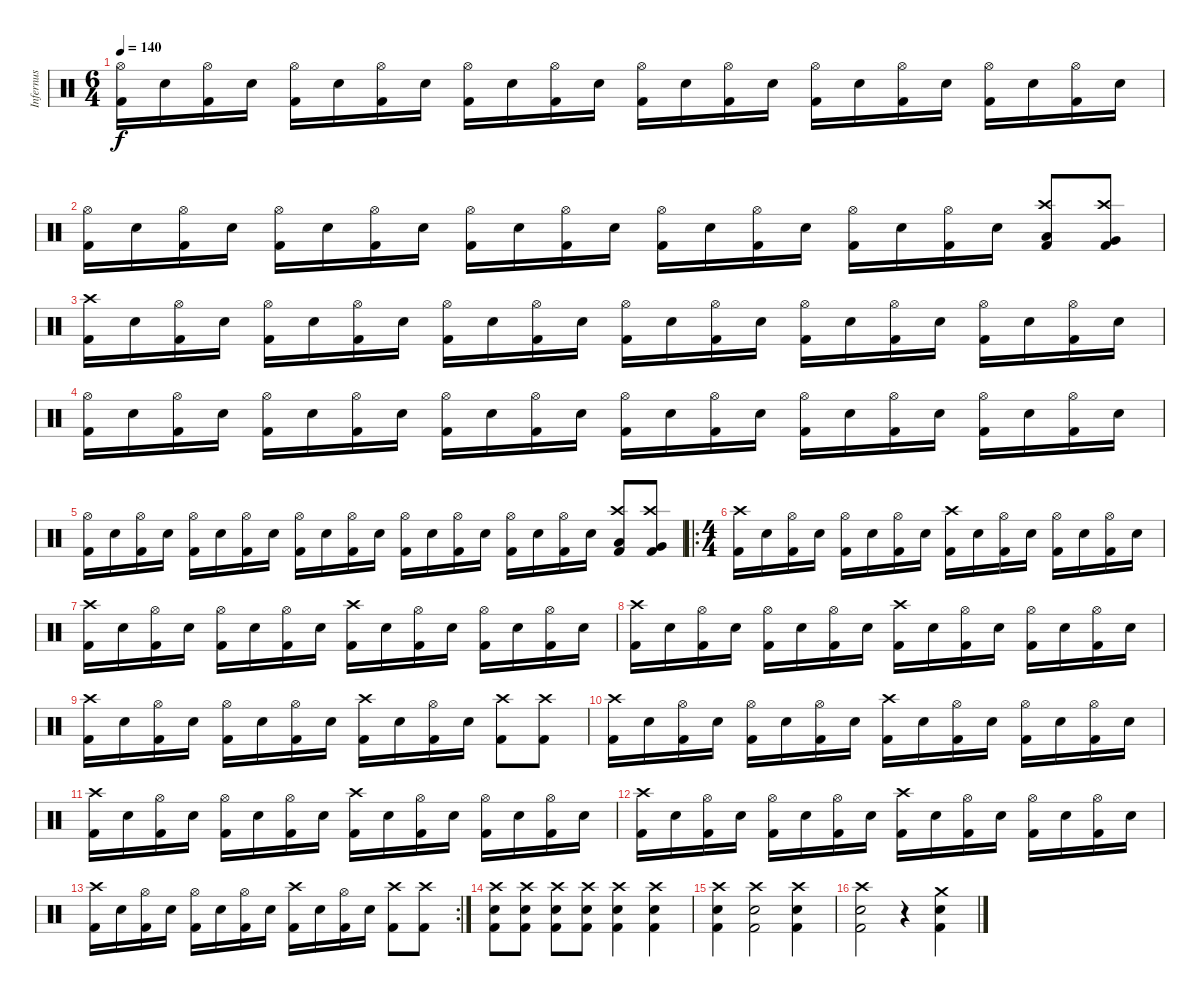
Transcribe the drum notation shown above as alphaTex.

\track ("Infernus" "Infernus") {instrument percussion}
\staff {score}
\articulation defaults
\ts (6 4)
\tempo 140
\clef neutral
\ks c
("Hi-Hat (open)" "Kick (hit) 2").16{dy f} "Electric Snare (hit)".16 ("Hi-Hat (open)" "Kick (hit) 2").16 "Electric Snare (hit)".16 ("Hi-Hat (open)" "Kick (hit) 2").16 "Electric Snare (hit)".16 ("Hi-Hat (open)" "Kick (hit) 2").16 "Electric Snare (hit)".16 ("Hi-Hat (open)" "Kick (hit) 2").16 "Electric Snare (hit)".16 ("Hi-Hat (open)" "Kick (hit) 2").16 "Electric Snare (hit)".16 ("Hi-Hat (open)" "Kick (hit) 2").16 "Electric Snare (hit)".16 ("Hi-Hat (open)" "Kick (hit) 2").16 "Electric Snare (hit)".16 ("Hi-Hat (open)" "Kick (hit) 2").16 "Electric Snare (hit)".16 ("Hi-Hat (open)" "Kick (hit) 2").16 "Electric Snare (hit)".16 ("Hi-Hat (open)" "Kick (hit) 2").16 "Electric Snare (hit)".16 ("Hi-Hat (open)" "Kick (hit) 2").16 "Electric Snare (hit)".16 |
("Hi-Hat (open)" "Kick (hit) 2").16 "Electric Snare (hit)".16 ("Hi-Hat (open)" "Kick (hit) 2").16 "Electric Snare (hit)".16 ("Hi-Hat (open)" "Kick (hit) 2").16 "Electric Snare (hit)".16 ("Hi-Hat (open)" "Kick (hit) 2").16 "Electric Snare (hit)".16 ("Hi-Hat (open)" "Kick (hit) 2").16 "Electric Snare (hit)".16 ("Hi-Hat (open)" "Kick (hit) 2").16 "Electric Snare (hit)".16 ("Hi-Hat (open)" "Kick (hit) 2").16 "Electric Snare (hit)".16 ("Hi-Hat (open)" "Kick (hit) 2").16 "Electric Snare (hit)".16 ("Hi-Hat (open)" "Kick (hit) 2").16 "Electric Snare (hit)".16 ("Hi-Hat (open)" "Kick (hit) 2").16 "Electric Snare (hit)".16 ("Crash high (hit)" "Low Tom (hit)" "Kick (hit) 2").8 ("Crash high (hit)" "Very Low Tom (hit)" "Kick (hit) 2").8 |
("Crash high (hit)" "Kick (hit) 2").16 "Electric Snare (hit)".16 ("Hi-Hat (open)" "Kick (hit) 2").16 "Electric Snare (hit)".16 ("Hi-Hat (open)" "Kick (hit) 2").16 "Electric Snare (hit)".16 ("Hi-Hat (open)" "Kick (hit) 2").16 "Electric Snare (hit)".16 ("Hi-Hat (open)" "Kick (hit) 2").16 "Electric Snare (hit)".16 ("Hi-Hat (open)" "Kick (hit) 2").16 "Electric Snare (hit)".16 ("Hi-Hat (open)" "Kick (hit) 2").16 "Electric Snare (hit)".16 ("Hi-Hat (open)" "Kick (hit) 2").16 "Electric Snare (hit)".16 ("Hi-Hat (open)" "Kick (hit) 2").16 "Electric Snare (hit)".16 ("Hi-Hat (open)" "Kick (hit) 2").16 "Electric Snare (hit)".16 ("Hi-Hat (open)" "Kick (hit) 2").16 "Electric Snare (hit)".16 ("Hi-Hat (open)" "Kick (hit) 2").16 "Electric Snare (hit)".16 |
("Hi-Hat (open)" "Kick (hit) 2").16 "Electric Snare (hit)".16 ("Hi-Hat (open)" "Kick (hit) 2").16 "Electric Snare (hit)".16 ("Hi-Hat (open)" "Kick (hit) 2").16 "Electric Snare (hit)".16 ("Hi-Hat (open)" "Kick (hit) 2").16 "Electric Snare (hit)".16 ("Hi-Hat (open)" "Kick (hit) 2").16 "Electric Snare (hit)".16 ("Hi-Hat (open)" "Kick (hit) 2").16 "Electric Snare (hit)".16 ("Hi-Hat (open)" "Kick (hit) 2").16 "Electric Snare (hit)".16 ("Hi-Hat (open)" "Kick (hit) 2").16 "Electric Snare (hit)".16 ("Hi-Hat (open)" "Kick (hit) 2").16 "Electric Snare (hit)".16 ("Hi-Hat (open)" "Kick (hit) 2").16 "Electric Snare (hit)".16 ("Hi-Hat (open)" "Kick (hit) 2").16 "Electric Snare (hit)".16 ("Hi-Hat (open)" "Kick (hit) 2").16 "Electric Snare (hit)".16 |
("Hi-Hat (open)" "Kick (hit) 2").16 "Electric Snare (hit)".16 ("Hi-Hat (open)" "Kick (hit) 2").16 "Electric Snare (hit)".16 ("Hi-Hat (open)" "Kick (hit) 2").16 "Electric Snare (hit)".16 ("Hi-Hat (open)" "Kick (hit) 2").16 "Electric Snare (hit)".16 ("Hi-Hat (open)" "Kick (hit) 2").16 "Electric Snare (hit)".16 ("Hi-Hat (open)" "Kick (hit) 2").16 "Electric Snare (hit)".16 ("Hi-Hat (open)" "Kick (hit) 2").16 "Electric Snare (hit)".16 ("Hi-Hat (open)" "Kick (hit) 2").16 "Electric Snare (hit)".16 ("Hi-Hat (open)" "Kick (hit) 2").16 "Electric Snare (hit)".16 ("Hi-Hat (open)" "Kick (hit) 2").16 "Electric Snare (hit)".16 ("Crash high (hit)" "Low Tom (hit)" "Kick (hit) 2").8 ("Crash high (hit)" "Very Low Tom (hit)" "Kick (hit) 2").8 |
\ro
\ts (4 4)
("Crash high (hit)" "Kick (hit) 2").16 "Electric Snare (hit)".16 ("Hi-Hat (open)" "Kick (hit) 2").16 "Electric Snare (hit)".16 ("Hi-Hat (open)" "Kick (hit) 2").16 "Electric Snare (hit)".16 ("Hi-Hat (open)" "Kick (hit) 2").16 "Electric Snare (hit)".16 ("Crash high (hit)" "Kick (hit) 2").16 "Electric Snare (hit)".16 ("Hi-Hat (open)" "Kick (hit) 2").16 "Electric Snare (hit)".16 ("Hi-Hat (open)" "Kick (hit) 2").16 "Electric Snare (hit)".16 ("Hi-Hat (open)" "Kick (hit) 2").16 "Electric Snare (hit)".16 |
("Crash high (hit)" "Kick (hit) 2").16 "Electric Snare (hit)".16 ("Hi-Hat (open)" "Kick (hit) 2").16 "Electric Snare (hit)".16 ("Hi-Hat (open)" "Kick (hit) 2").16 "Electric Snare (hit)".16 ("Hi-Hat (open)" "Kick (hit) 2").16 "Electric Snare (hit)".16 ("Crash high (hit)" "Kick (hit) 2").16 "Electric Snare (hit)".16 ("Hi-Hat (open)" "Kick (hit) 2").16 "Electric Snare (hit)".16 ("Hi-Hat (open)" "Kick (hit) 2").16 "Electric Snare (hit)".16 ("Hi-Hat (open)" "Kick (hit) 2").16 "Electric Snare (hit)".16 |
("Crash high (hit)" "Kick (hit) 2").16 "Electric Snare (hit)".16 ("Hi-Hat (open)" "Kick (hit) 2").16 "Electric Snare (hit)".16 ("Hi-Hat (open)" "Kick (hit) 2").16 "Electric Snare (hit)".16 ("Hi-Hat (open)" "Kick (hit) 2").16 "Electric Snare (hit)".16 ("Crash high (hit)" "Kick (hit) 2").16 "Electric Snare (hit)".16 ("Hi-Hat (open)" "Kick (hit) 2").16 "Electric Snare (hit)".16 ("Hi-Hat (open)" "Kick (hit) 2").16 "Electric Snare (hit)".16 ("Hi-Hat (open)" "Kick (hit) 2").16 "Electric Snare (hit)".16 |
("Crash high (hit)" "Kick (hit) 2").16 "Electric Snare (hit)".16 ("Hi-Hat (open)" "Kick (hit) 2").16 "Electric Snare (hit)".16 ("Hi-Hat (open)" "Kick (hit) 2").16 "Electric Snare (hit)".16 ("Hi-Hat (open)" "Kick (hit) 2").16 "Electric Snare (hit)".16 ("Crash high (hit)" "Kick (hit) 2").16 "Electric Snare (hit)".16 ("Hi-Hat (open)" "Kick (hit) 2").16 "Electric Snare (hit)".16 ("Crash high (hit)" "Kick (hit) 2").8 ("Crash high (hit)" "Kick (hit) 2").8 |
("Crash high (hit)" "Kick (hit) 2").16 "Electric Snare (hit)".16 ("Hi-Hat (open)" "Kick (hit) 2").16 "Electric Snare (hit)".16 ("Hi-Hat (open)" "Kick (hit) 2").16 "Electric Snare (hit)".16 ("Hi-Hat (open)" "Kick (hit) 2").16 "Electric Snare (hit)".16 ("Crash high (hit)" "Kick (hit) 2").16 "Electric Snare (hit)".16 ("Hi-Hat (open)" "Kick (hit) 2").16 "Electric Snare (hit)".16 ("Hi-Hat (open)" "Kick (hit) 2").16 "Electric Snare (hit)".16 ("Hi-Hat (open)" "Kick (hit) 2").16 "Electric Snare (hit)".16 |
("Crash high (hit)" "Kick (hit) 2").16 "Electric Snare (hit)".16 ("Hi-Hat (open)" "Kick (hit) 2").16 "Electric Snare (hit)".16 ("Hi-Hat (open)" "Kick (hit) 2").16 "Electric Snare (hit)".16 ("Hi-Hat (open)" "Kick (hit) 2").16 "Electric Snare (hit)".16 ("Crash high (hit)" "Kick (hit) 2").16 "Electric Snare (hit)".16 ("Hi-Hat (open)" "Kick (hit) 2").16 "Electric Snare (hit)".16 ("Hi-Hat (open)" "Kick (hit) 2").16 "Electric Snare (hit)".16 ("Hi-Hat (open)" "Kick (hit) 2").16 "Electric Snare (hit)".16 |
("Crash high (hit)" "Kick (hit) 2").16 "Electric Snare (hit)".16 ("Hi-Hat (open)" "Kick (hit) 2").16 "Electric Snare (hit)".16 ("Hi-Hat (open)" "Kick (hit) 2").16 "Electric Snare (hit)".16 ("Hi-Hat (open)" "Kick (hit) 2").16 "Electric Snare (hit)".16 ("Crash high (hit)" "Kick (hit) 2").16 "Electric Snare (hit)".16 ("Hi-Hat (open)" "Kick (hit) 2").16 "Electric Snare (hit)".16 ("Hi-Hat (open)" "Kick (hit) 2").16 "Electric Snare (hit)".16 ("Hi-Hat (open)" "Kick (hit) 2").16 "Electric Snare (hit)".16 |
\rc 2
("Crash high (hit)" "Kick (hit) 2").16 "Electric Snare (hit)".16 ("Hi-Hat (open)" "Kick (hit) 2").16 "Electric Snare (hit)".16 ("Hi-Hat (open)" "Kick (hit) 2").16 "Electric Snare (hit)".16 ("Hi-Hat (open)" "Kick (hit) 2").16 "Electric Snare (hit)".16 ("Crash high (hit)" "Kick (hit) 2").16 "Electric Snare (hit)".16 ("Hi-Hat (open)" "Kick (hit) 2").16 "Electric Snare (hit)".16 ("Crash high (hit)" "Kick (hit) 2").8 ("Crash high (hit)" "Kick (hit) 2").8 |
("Crash high (hit)" "Electric Snare (hit)" "Kick (hit) 2").8 ("Crash high (hit)" "Electric Snare (hit)" "Kick (hit) 2").8 ("Crash high (hit)" "Electric Snare (hit)" "Kick (hit) 2").8 ("Crash high (hit)" "Electric Snare (hit)" "Kick (hit) 2").8 ("Crash high (hit)" "Electric Snare (hit)" "Kick (hit) 2").4 ("Crash high (hit)" "Electric Snare (hit)" "Kick (hit) 2").4 |
("Crash high (hit)" "Electric Snare (hit)" "Kick (hit) 2").4 ("Crash high (hit)" "Electric Snare (hit)" "Kick (hit) 2").2 ("Crash high (hit)" "Electric Snare (hit)" "Kick (hit) 2").4 |
("Crash high (hit)" "Electric Snare (hit)" "Kick (hit) 2").2 r.4 ("Crash medium (hit)" "Electric Snare (hit)" "Kick (hit) 2").4
